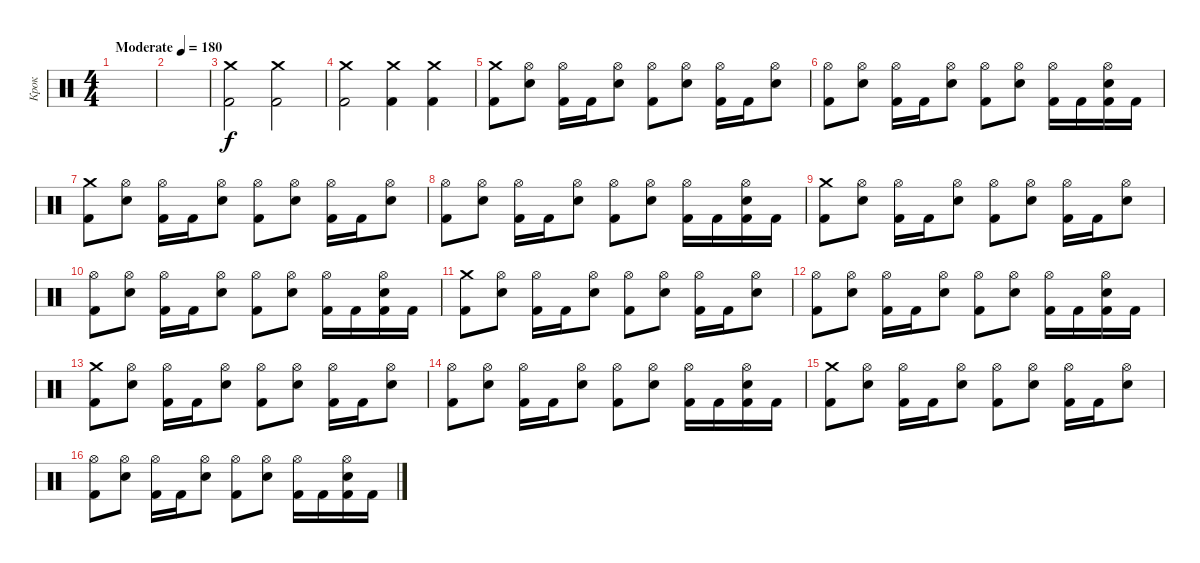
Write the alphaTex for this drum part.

\track ("Крок" "Крок") {instrument percussion}
\staff {score}
\articulation defaults
\ts (4 4)
\tempo (180 "Moderate")
\clef neutral
\ks c
|
|
("Kick (hit) 2" "Crash medium (hit)").2 ("Kick (hit) 2" "Crash medium (hit)").2 |
("Crash medium (hit)" "Kick (hit) 2").2 ("Kick (hit) 2" "Crash medium (hit)").4 ("Kick (hit) 2" "Crash medium (hit)").4 |
("Kick (hit) 2" "Crash medium (hit)").8 ("Electric Snare (hit)" "Hi-Hat (open)").8 ("Kick (hit) 2" "Hi-Hat (open)").16 "Kick (hit) 2".16 ("Electric Snare (hit)" "Hi-Hat (open)").8 ("Kick (hit) 2" "Hi-Hat (open)").8 ("Electric Snare (hit)" "Hi-Hat (open)").8 ("Kick (hit) 2" "Hi-Hat (open)").16 "Kick (hit) 2".16 ("Electric Snare (hit)" "Hi-Hat (open)").8 |
("Kick (hit) 2" "Hi-Hat (open)").8 ("Electric Snare (hit)" "Hi-Hat (open)").8 ("Kick (hit) 2" "Hi-Hat (open)").16 "Kick (hit) 2".16 ("Electric Snare (hit)" "Hi-Hat (open)").8 ("Kick (hit) 2" "Hi-Hat (open)").8 ("Electric Snare (hit)" "Hi-Hat (open)").8 ("Kick (hit) 2" "Hi-Hat (open)").16 "Kick (hit) 2".16 ("Kick (hit) 2" "Electric Snare (hit)" "Hi-Hat (open)").16 "Kick (hit) 2".16 |
("Kick (hit) 2" "Crash medium (hit)").8 ("Electric Snare (hit)" "Hi-Hat (open)").8 ("Kick (hit) 2" "Hi-Hat (open)").16 "Kick (hit) 2".16 ("Electric Snare (hit)" "Hi-Hat (open)").8 ("Kick (hit) 2" "Hi-Hat (open)").8 ("Electric Snare (hit)" "Hi-Hat (open)").8 ("Kick (hit) 2" "Hi-Hat (open)").16 "Kick (hit) 2".16 ("Electric Snare (hit)" "Hi-Hat (open)").8 |
("Kick (hit) 2" "Hi-Hat (open)").8 ("Electric Snare (hit)" "Hi-Hat (open)").8 ("Kick (hit) 2" "Hi-Hat (open)").16 "Kick (hit) 2".16 ("Electric Snare (hit)" "Hi-Hat (open)").8 ("Kick (hit) 2" "Hi-Hat (open)").8 ("Electric Snare (hit)" "Hi-Hat (open)").8 ("Kick (hit) 2" "Hi-Hat (open)").16 "Kick (hit) 2".16 ("Kick (hit) 2" "Electric Snare (hit)" "Hi-Hat (open)").16 "Kick (hit) 2".16 |
("Kick (hit) 2" "Crash medium (hit)").8 ("Electric Snare (hit)" "Hi-Hat (open)").8 ("Kick (hit) 2" "Hi-Hat (open)").16 "Kick (hit) 2".16 ("Electric Snare (hit)" "Hi-Hat (open)").8 ("Kick (hit) 2" "Hi-Hat (open)").8 ("Electric Snare (hit)" "Hi-Hat (open)").8 ("Kick (hit) 2" "Hi-Hat (open)").16 "Kick (hit) 2".16 ("Electric Snare (hit)" "Hi-Hat (open)").8 |
("Kick (hit) 2" "Hi-Hat (open)").8 ("Electric Snare (hit)" "Hi-Hat (open)").8 ("Kick (hit) 2" "Hi-Hat (open)").16 "Kick (hit) 2".16 ("Electric Snare (hit)" "Hi-Hat (open)").8 ("Kick (hit) 2" "Hi-Hat (open)").8 ("Electric Snare (hit)" "Hi-Hat (open)").8 ("Kick (hit) 2" "Hi-Hat (open)").16 "Kick (hit) 2".16 ("Kick (hit) 2" "Electric Snare (hit)" "Hi-Hat (open)").16 "Kick (hit) 2".16 |
("Kick (hit) 2" "Crash medium (hit)").8 ("Electric Snare (hit)" "Hi-Hat (open)").8 ("Kick (hit) 2" "Hi-Hat (open)").16 "Kick (hit) 2".16 ("Electric Snare (hit)" "Hi-Hat (open)").8 ("Kick (hit) 2" "Hi-Hat (open)").8 ("Electric Snare (hit)" "Hi-Hat (open)").8 ("Kick (hit) 2" "Hi-Hat (open)").16 "Kick (hit) 2".16 ("Electric Snare (hit)" "Hi-Hat (open)").8 |
("Kick (hit) 2" "Hi-Hat (open)").8 ("Electric Snare (hit)" "Hi-Hat (open)").8 ("Kick (hit) 2" "Hi-Hat (open)").16 "Kick (hit) 2".16 ("Electric Snare (hit)" "Hi-Hat (open)").8 ("Kick (hit) 2" "Hi-Hat (open)").8 ("Electric Snare (hit)" "Hi-Hat (open)").8 ("Kick (hit) 2" "Hi-Hat (open)").16 "Kick (hit) 2".16 ("Kick (hit) 2" "Electric Snare (hit)" "Hi-Hat (open)").16 "Kick (hit) 2".16 |
("Kick (hit) 2" "Crash medium (hit)").8 ("Electric Snare (hit)" "Hi-Hat (open)").8 ("Kick (hit) 2" "Hi-Hat (open)").16 "Kick (hit) 2".16 ("Electric Snare (hit)" "Hi-Hat (open)").8 ("Kick (hit) 2" "Hi-Hat (open)").8 ("Electric Snare (hit)" "Hi-Hat (open)").8 ("Kick (hit) 2" "Hi-Hat (open)").16 "Kick (hit) 2".16 ("Electric Snare (hit)" "Hi-Hat (open)").8 |
("Kick (hit) 2" "Hi-Hat (open)").8 ("Electric Snare (hit)" "Hi-Hat (open)").8 ("Kick (hit) 2" "Hi-Hat (open)").16 "Kick (hit) 2".16 ("Electric Snare (hit)" "Hi-Hat (open)").8 ("Kick (hit) 2" "Hi-Hat (open)").8 ("Electric Snare (hit)" "Hi-Hat (open)").8 ("Kick (hit) 2" "Hi-Hat (open)").16 "Kick (hit) 2".16 ("Kick (hit) 2" "Electric Snare (hit)" "Hi-Hat (open)").16 "Kick (hit) 2".16 |
("Kick (hit) 2" "Crash medium (hit)").8 ("Electric Snare (hit)" "Hi-Hat (open)").8 ("Kick (hit) 2" "Hi-Hat (open)").16 "Kick (hit) 2".16 ("Electric Snare (hit)" "Hi-Hat (open)").8 ("Kick (hit) 2" "Hi-Hat (open)").8 ("Electric Snare (hit)" "Hi-Hat (open)").8 ("Kick (hit) 2" "Hi-Hat (open)").16 "Kick (hit) 2".16 ("Electric Snare (hit)" "Hi-Hat (open)").8 |
("Kick (hit) 2" "Hi-Hat (open)").8 ("Electric Snare (hit)" "Hi-Hat (open)").8 ("Kick (hit) 2" "Hi-Hat (open)").16 "Kick (hit) 2".16 ("Electric Snare (hit)" "Hi-Hat (open)").8 ("Kick (hit) 2" "Hi-Hat (open)").8 ("Electric Snare (hit)" "Hi-Hat (open)").8 ("Kick (hit) 2" "Hi-Hat (open)").16 "Kick (hit) 2".16 ("Kick (hit) 2" "Electric Snare (hit)" "Hi-Hat (open)").16 "Kick (hit) 2".16
